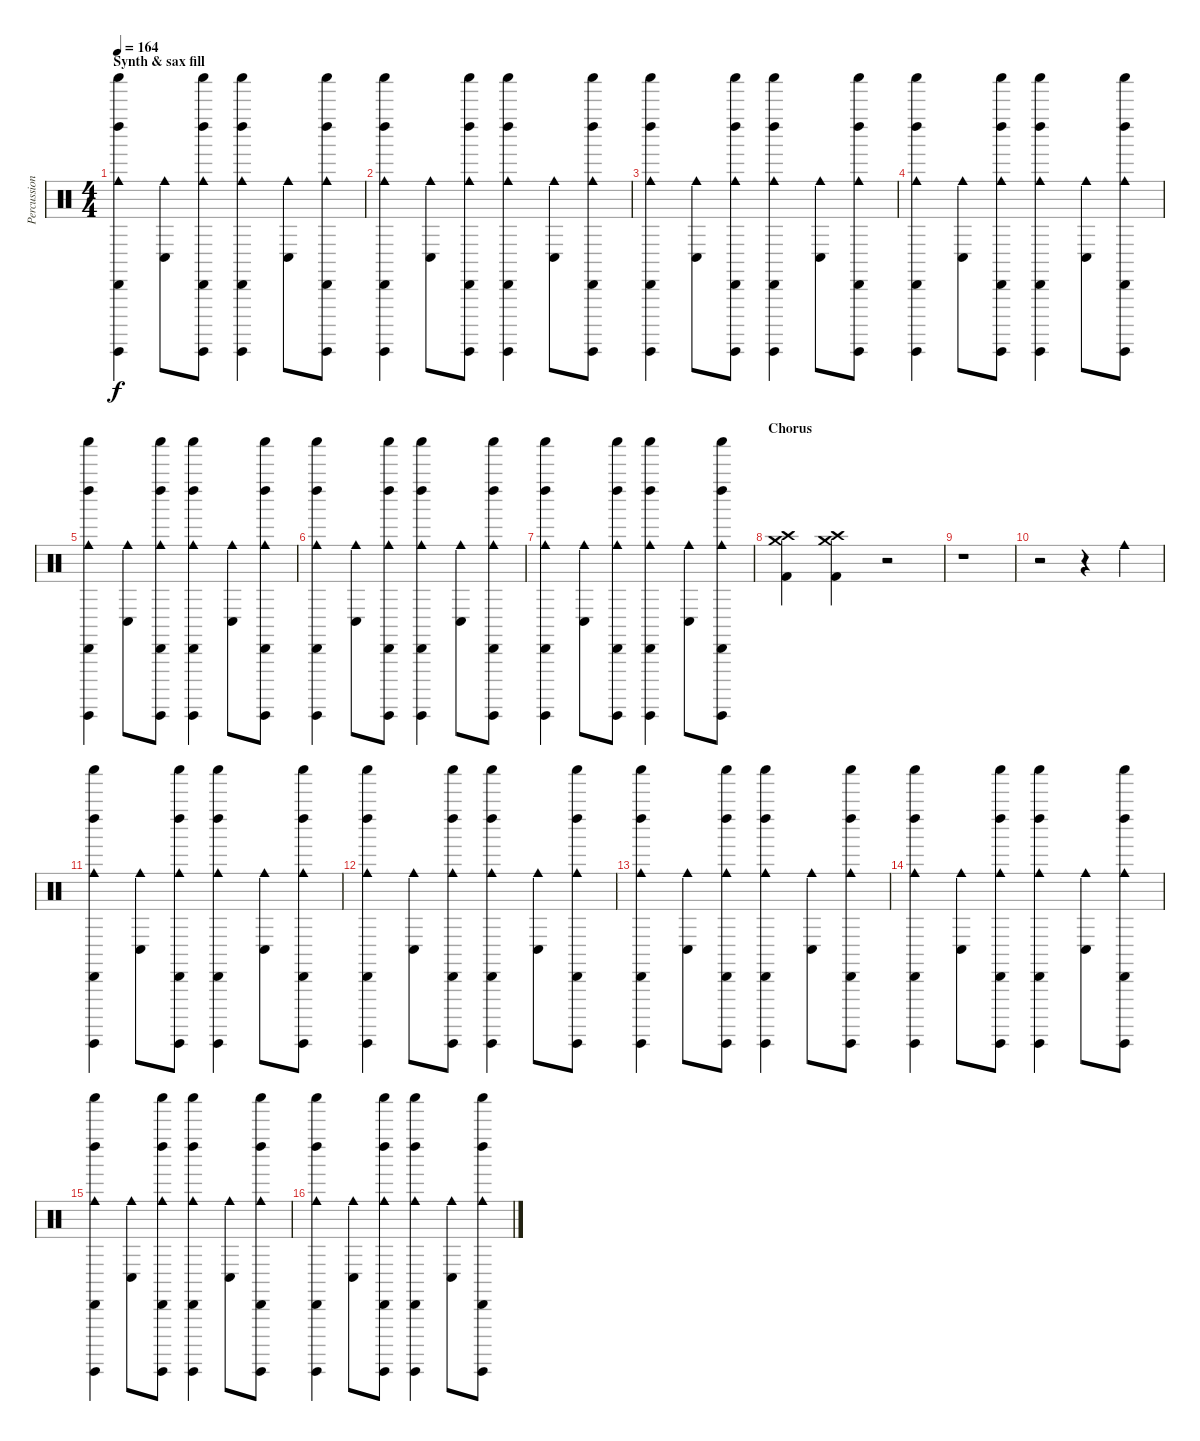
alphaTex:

\track ("Percussion" "Percussion") {instrument percussion}
\staff {score}
\articulation defaults
\ts (4 4)
\section ("" "Synth & sax fill")
\tempo 164
\clef neutral
\ks c
("Shaker (hit)" "Guiro (hit)" "Left Maraca (hit)" "Cabasa (hit)" "Cowbell medium (hit)").4{dy f} ("Conga low (hit)" "Cowbell medium (hit)").8 ("Shaker (hit)" "Guiro (hit)" "Left Maraca (hit)" "Cabasa (hit)" "Cowbell medium (hit)").8 ("Shaker (hit)" "Guiro (hit)" "Left Maraca (hit)" "Cabasa (hit)" "Cowbell medium (hit)").4 ("Conga low (hit)" "Cowbell medium (hit)").8 ("Shaker (hit)" "Guiro (hit)" "Left Maraca (hit)" "Cabasa (hit)" "Cowbell medium (hit)").8 |
("Shaker (hit)" "Guiro (hit)" "Left Maraca (hit)" "Cabasa (hit)" "Cowbell medium (hit)").4 ("Conga low (hit)" "Cowbell medium (hit)").8 ("Shaker (hit)" "Guiro (hit)" "Left Maraca (hit)" "Cabasa (hit)" "Cowbell medium (hit)").8 ("Shaker (hit)" "Guiro (hit)" "Left Maraca (hit)" "Cabasa (hit)" "Cowbell medium (hit)").4 ("Conga low (hit)" "Cowbell medium (hit)").8 ("Shaker (hit)" "Guiro (hit)" "Left Maraca (hit)" "Cabasa (hit)" "Cowbell medium (hit)").8 |
("Shaker (hit)" "Guiro (hit)" "Left Maraca (hit)" "Cabasa (hit)" "Cowbell medium (hit)").4 ("Conga low (hit)" "Cowbell medium (hit)").8 ("Shaker (hit)" "Guiro (hit)" "Left Maraca (hit)" "Cabasa (hit)" "Cowbell medium (hit)").8 ("Shaker (hit)" "Guiro (hit)" "Left Maraca (hit)" "Cabasa (hit)" "Cowbell medium (hit)").4 ("Conga low (hit)" "Cowbell medium (hit)").8 ("Shaker (hit)" "Guiro (hit)" "Left Maraca (hit)" "Cabasa (hit)" "Cowbell medium (hit)").8 |
("Shaker (hit)" "Guiro (hit)" "Left Maraca (hit)" "Cabasa (hit)" "Cowbell medium (hit)").4 ("Conga low (hit)" "Cowbell medium (hit)").8 ("Shaker (hit)" "Guiro (hit)" "Left Maraca (hit)" "Cabasa (hit)" "Cowbell medium (hit)").8 ("Shaker (hit)" "Guiro (hit)" "Left Maraca (hit)" "Cabasa (hit)" "Cowbell medium (hit)").4 ("Conga low (hit)" "Cowbell medium (hit)").8 ("Shaker (hit)" "Guiro (hit)" "Left Maraca (hit)" "Cabasa (hit)" "Cowbell medium (hit)").8 |
("Shaker (hit)" "Guiro (hit)" "Left Maraca (hit)" "Cabasa (hit)" "Cowbell medium (hit)").4 ("Conga low (hit)" "Cowbell medium (hit)").8 ("Shaker (hit)" "Guiro (hit)" "Left Maraca (hit)" "Cabasa (hit)" "Cowbell medium (hit)").8 ("Shaker (hit)" "Guiro (hit)" "Left Maraca (hit)" "Cabasa (hit)" "Cowbell medium (hit)").4 ("Conga low (hit)" "Cowbell medium (hit)").8 ("Shaker (hit)" "Guiro (hit)" "Left Maraca (hit)" "Cabasa (hit)" "Cowbell medium (hit)").8 |
("Shaker (hit)" "Guiro (hit)" "Left Maraca (hit)" "Cabasa (hit)" "Cowbell medium (hit)").4 ("Conga low (hit)" "Cowbell medium (hit)").8 ("Shaker (hit)" "Guiro (hit)" "Left Maraca (hit)" "Cabasa (hit)" "Cowbell medium (hit)").8 ("Shaker (hit)" "Guiro (hit)" "Left Maraca (hit)" "Cabasa (hit)" "Cowbell medium (hit)").4 ("Conga low (hit)" "Cowbell medium (hit)").8 ("Shaker (hit)" "Guiro (hit)" "Left Maraca (hit)" "Cabasa (hit)" "Cowbell medium (hit)").8 |
("Shaker (hit)" "Guiro (hit)" "Left Maraca (hit)" "Cabasa (hit)" "Cowbell medium (hit)").4 ("Conga low (hit)" "Cowbell medium (hit)").8 ("Shaker (hit)" "Guiro (hit)" "Left Maraca (hit)" "Cabasa (hit)" "Cowbell medium (hit)").8 ("Shaker (hit)" "Guiro (hit)" "Left Maraca (hit)" "Cabasa (hit)" "Cowbell medium (hit)").4 ("Conga low (hit)" "Cowbell medium (hit)").8 ("Shaker (hit)" "Guiro (hit)" "Left Maraca (hit)" "Cabasa (hit)" "Cowbell medium (hit)").8 |
\section ("" "Chorus")
("Crash high (hit)" "Crash medium (hit)" "Kick (hit) 2").4 ("Crash high (hit)" "Crash medium (hit)" "Kick (hit) 2").4 r.2 |
r.1 |
r.2 r.4 "Cowbell medium (hit)".4 |
("Shaker (hit)" "Guiro (hit)" "Left Maraca (hit)" "Cabasa (hit)" "Cowbell medium (hit)").4 ("Conga low (hit)" "Cowbell medium (hit)").8 ("Shaker (hit)" "Guiro (hit)" "Left Maraca (hit)" "Cabasa (hit)" "Cowbell medium (hit)").8 ("Shaker (hit)" "Guiro (hit)" "Left Maraca (hit)" "Cabasa (hit)" "Cowbell medium (hit)").4 ("Conga low (hit)" "Cowbell medium (hit)").8 ("Shaker (hit)" "Guiro (hit)" "Left Maraca (hit)" "Cabasa (hit)" "Cowbell medium (hit)").8 |
("Shaker (hit)" "Guiro (hit)" "Left Maraca (hit)" "Cabasa (hit)" "Cowbell medium (hit)").4 ("Conga low (hit)" "Cowbell medium (hit)").8 ("Shaker (hit)" "Guiro (hit)" "Left Maraca (hit)" "Cabasa (hit)" "Cowbell medium (hit)").8 ("Shaker (hit)" "Guiro (hit)" "Left Maraca (hit)" "Cabasa (hit)" "Cowbell medium (hit)").4 ("Conga low (hit)" "Cowbell medium (hit)").8 ("Shaker (hit)" "Guiro (hit)" "Left Maraca (hit)" "Cabasa (hit)" "Cowbell medium (hit)").8 |
("Shaker (hit)" "Guiro (hit)" "Left Maraca (hit)" "Cabasa (hit)" "Cowbell medium (hit)").4 ("Conga low (hit)" "Cowbell medium (hit)").8 ("Shaker (hit)" "Guiro (hit)" "Left Maraca (hit)" "Cabasa (hit)" "Cowbell medium (hit)").8 ("Shaker (hit)" "Guiro (hit)" "Left Maraca (hit)" "Cabasa (hit)" "Cowbell medium (hit)").4 ("Conga low (hit)" "Cowbell medium (hit)").8 ("Shaker (hit)" "Guiro (hit)" "Left Maraca (hit)" "Cabasa (hit)" "Cowbell medium (hit)").8 |
("Shaker (hit)" "Guiro (hit)" "Left Maraca (hit)" "Cabasa (hit)" "Cowbell medium (hit)").4 ("Conga low (hit)" "Cowbell medium (hit)").8 ("Shaker (hit)" "Guiro (hit)" "Left Maraca (hit)" "Cabasa (hit)" "Cowbell medium (hit)").8 ("Shaker (hit)" "Guiro (hit)" "Left Maraca (hit)" "Cabasa (hit)" "Cowbell medium (hit)").4 ("Conga low (hit)" "Cowbell medium (hit)").8 ("Shaker (hit)" "Guiro (hit)" "Left Maraca (hit)" "Cabasa (hit)" "Cowbell medium (hit)").8 |
("Shaker (hit)" "Guiro (hit)" "Left Maraca (hit)" "Cabasa (hit)" "Cowbell medium (hit)").4 ("Conga low (hit)" "Cowbell medium (hit)").8 ("Shaker (hit)" "Guiro (hit)" "Left Maraca (hit)" "Cabasa (hit)" "Cowbell medium (hit)").8 ("Shaker (hit)" "Guiro (hit)" "Left Maraca (hit)" "Cabasa (hit)" "Cowbell medium (hit)").4 ("Conga low (hit)" "Cowbell medium (hit)").8 ("Shaker (hit)" "Guiro (hit)" "Left Maraca (hit)" "Cabasa (hit)" "Cowbell medium (hit)").8 |
("Shaker (hit)" "Guiro (hit)" "Left Maraca (hit)" "Cabasa (hit)" "Cowbell medium (hit)").4 ("Conga low (hit)" "Cowbell medium (hit)").8 ("Shaker (hit)" "Guiro (hit)" "Left Maraca (hit)" "Cabasa (hit)" "Cowbell medium (hit)").8 ("Shaker (hit)" "Guiro (hit)" "Left Maraca (hit)" "Cabasa (hit)" "Cowbell medium (hit)").4 ("Conga low (hit)" "Cowbell medium (hit)").8 ("Shaker (hit)" "Guiro (hit)" "Left Maraca (hit)" "Cabasa (hit)" "Cowbell medium (hit)").8
